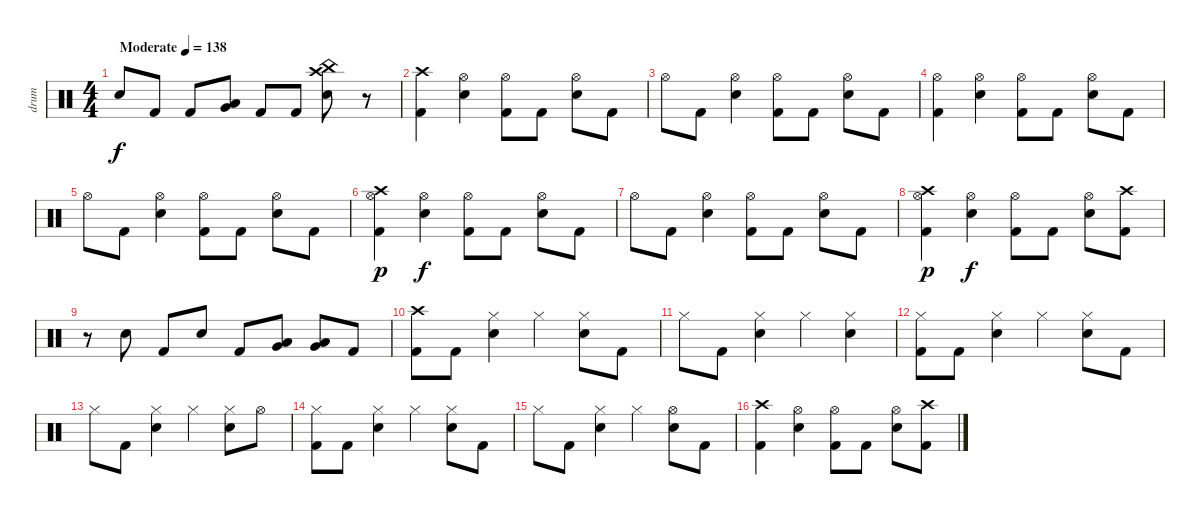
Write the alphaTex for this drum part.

\track ("drum" "drum") {instrument percussion}
\staff {score}
\articulation defaults
\ts (4 4)
\tempo (138 "Moderate")
\clef neutral
\ks c "Snare (hit) 2".8{dy f} "Kick (hit) 2".8 "Kick (hit) 2".8
("Low Tom (hit)" "Very Low Tom (hit)").8 "Kick (hit) 2".8 "Kick (hit) 2".8 ("China (hit)" "Crash high (hit)" "Snare (hit) 2").8 r.8 |
("Crash high (hit)" "Kick (hit) 2").4 ("Hi-Hat (open)" "Snare (hit) 2").4 ("Hi-Hat (open)" "Kick (hit) 2").8 "Kick (hit) 2".8 ("Hi-Hat (open)" "Snare (hit) 2").8 "Kick (hit) 2".8 |
"Hi-Hat (open)".8 "Kick (hit) 2".8 ("Hi-Hat (open)" "Snare (hit) 2").4 ("Hi-Hat (open)" "Kick (hit) 2").8 "Kick (hit) 2".8 ("Hi-Hat (open)" "Snare (hit) 2").8 "Kick (hit) 2".8 |
("Hi-Hat (open)" "Kick (hit) 2").4 ("Hi-Hat (open)" "Snare (hit) 2").4 ("Hi-Hat (open)" "Kick (hit) 2").8 "Kick (hit) 2".8 ("Hi-Hat (open)" "Snare (hit) 2").8 "Kick (hit) 2".8 |
"Hi-Hat (open)".8 "Kick (hit) 2".8 ("Hi-Hat (open)" "Snare (hit) 2").4 ("Hi-Hat (open)" "Kick (hit) 2").8 "Kick (hit) 2".8 ("Hi-Hat (open)" "Snare (hit) 2").8 "Kick (hit) 2".8 |
("Crash high (hit)" "Hi-Hat (open)" "Kick (hit) 2").4{dy p} ("Hi-Hat (open)" "Snare (hit) 2").4{dy f} ("Hi-Hat (open)" "Kick (hit) 2").8 "Kick (hit) 2".8 ("Hi-Hat (open)" "Snare (hit) 2").8 "Kick (hit) 2".8 |
"Hi-Hat (open)".8 "Kick (hit) 2".8 ("Hi-Hat (open)" "Snare (hit) 2").4 ("Hi-Hat (open)" "Kick (hit) 2").8 "Kick (hit) 2".8 ("Hi-Hat (open)" "Snare (hit) 2").8 "Kick (hit) 2".8 |
("Crash high (hit)" "Hi-Hat (open)" "Kick (hit) 2").4{dy p} ("Hi-Hat (open)" "Snare (hit) 2").4{dy f} ("Hi-Hat (open)" "Kick (hit) 2").8 "Kick (hit) 2".8 ("Hi-Hat (open)" "Snare (hit) 2").8 ("Crash high (hit)" "Kick (hit) 2").8 |
r.8 "Snare (hit) 2".8 "Kick (hit) 2".8 "Snare (hit) 2".8 "Kick (hit) 2".8 ("Low Tom (hit)" "Very Low Tom (hit)").8 ("Low Tom (hit)" "Very Low Tom (hit)").8 "Kick (hit) 2".8 |
("Crash high (hit)" "Kick (hit) 2").8 "Kick (hit) 2".8 ("Hi-Hat (closed)" "Snare (hit) 2").4 "Hi-Hat (closed)".4 ("Hi-Hat (closed)" "Snare (hit) 2").8 "Kick (hit) 2".8 |
"Hi-Hat (closed)".8 "Kick (hit) 2".8 ("Hi-Hat (closed)" "Snare (hit) 2").4 "Hi-Hat (closed)".4 ("Hi-Hat (closed)" "Snare (hit) 2").4 |
("Hi-Hat (closed)" "Kick (hit) 2").8 "Kick (hit) 2".8 ("Hi-Hat (closed)" "Snare (hit) 2").4 "Hi-Hat (closed)".4 ("Hi-Hat (closed)" "Snare (hit) 2").8 "Kick (hit) 2".8 |
"Hi-Hat (closed)".8 "Kick (hit) 2".8 ("Hi-Hat (closed)" "Snare (hit) 2").4 "Hi-Hat (closed)".4 ("Hi-Hat (closed)" "Snare (hit) 2").8 "Hi-Hat (open)".8 |
("Hi-Hat (closed)" "Kick (hit) 2").8 "Kick (hit) 2".8 ("Hi-Hat (closed)" "Snare (hit) 2").4 "Hi-Hat (closed)".4 ("Hi-Hat (closed)" "Snare (hit) 2").8 "Kick (hit) 2".8 |
"Hi-Hat (closed)".8 "Kick (hit) 2".8 ("Hi-Hat (closed)" "Snare (hit) 2").4 "Hi-Hat (closed)".4 ("Hi-Hat (open)" "Snare (hit) 2").8 "Kick (hit) 2".8 |
("Crash high (hit)" "Kick (hit) 2").4 ("Hi-Hat (open)" "Snare (hit) 2").4 ("Hi-Hat (open)" "Kick (hit) 2").8 "Kick (hit) 2".8 ("Hi-Hat (open)" "Snare (hit) 2").8 ("Crash high (hit)" "Kick (hit) 2").8
